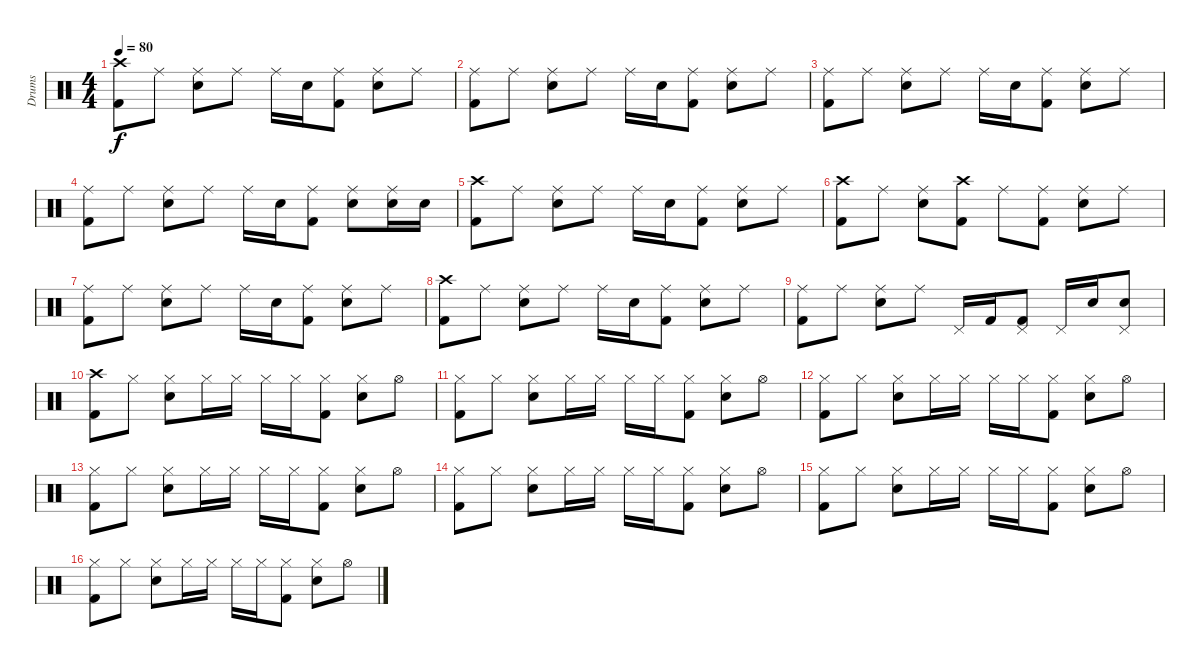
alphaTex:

\track ("Drums" "Drums") {instrument percussion}
\staff {score}
\articulation defaults
\ts (4 4)
\tempo 80
\clef neutral
\ks c
("Crash high (hit)" "Kick (hit) 2").8{dy f} "Ride (middle)".8 ("Ride (middle)" "Electric Snare (hit)").8 "Ride (middle)".8 "Ride (middle)".16 "Electric Snare (hit)".16 ("Ride (middle)" "Kick (hit) 2").8 ("Ride (middle)" "Electric Snare (hit)").8 "Ride (middle)".8 |
("Ride (middle)" "Kick (hit) 2").8 "Ride (middle)".8 ("Ride (middle)" "Electric Snare (hit)").8 "Ride (middle)".8 "Ride (middle)".16 "Electric Snare (hit)".16 ("Ride (middle)" "Kick (hit) 2").8 ("Ride (middle)" "Electric Snare (hit)").8 "Ride (middle)".8 |
("Ride (middle)" "Kick (hit) 2").8 "Ride (middle)".8 ("Ride (middle)" "Electric Snare (hit)").8 "Ride (middle)".8 "Ride (middle)".16 "Electric Snare (hit)".16 ("Ride (middle)" "Kick (hit) 2").8 ("Ride (middle)" "Electric Snare (hit)").8 "Ride (middle)".8 |
("Ride (middle)" "Kick (hit) 2").8 "Ride (middle)".8 ("Ride (middle)" "Electric Snare (hit)").8 "Ride (middle)".8 "Ride (middle)".16 "Electric Snare (hit)".16 ("Ride (middle)" "Kick (hit) 2").8 ("Ride (middle)" "Electric Snare (hit)").8 ("Ride (middle)" "Electric Snare (hit)").16 "Electric Snare (hit)".16 |
("Crash high (hit)" "Kick (hit) 2").8 "Ride (middle)".8 ("Ride (middle)" "Electric Snare (hit)").8 "Ride (middle)".8 "Ride (middle)".16 "Electric Snare (hit)".16 ("Ride (middle)" "Kick (hit) 2").8 ("Ride (middle)" "Electric Snare (hit)").8 "Ride (middle)".8 |
("Crash high (hit)" "Kick (hit) 2").8 "Ride (middle)".8 ("Ride (middle)" "Electric Snare (hit)").8 ("Crash high (hit)" "Kick (hit) 2").8 "Ride (middle)".8 ("Ride (middle)" "Kick (hit) 2").8 ("Ride (middle)" "Electric Snare (hit)").8 "Ride (middle)".8 |
("Ride (middle)" "Kick (hit) 2").8 "Ride (middle)".8 ("Ride (middle)" "Electric Snare (hit)").8 "Ride (middle)".8 "Ride (middle)".16 "Electric Snare (hit)".16 ("Ride (middle)" "Kick (hit) 2").8 ("Ride (middle)" "Electric Snare (hit)").8 "Ride (middle)".8 |
("Crash high (hit)" "Kick (hit) 2").8 "Ride (middle)".8 ("Ride (middle)" "Electric Snare (hit)").8 "Ride (middle)".8 "Ride (middle)".16 "Electric Snare (hit)".16 ("Ride (middle)" "Kick (hit) 2").8 ("Ride (middle)" "Electric Snare (hit)").8 "Ride (middle)".8 |
("Ride (middle)" "Kick (hit) 2").8 "Ride (middle)".8 ("Ride (middle)" "Electric Snare (hit)").8 "Ride (middle)".8 "Pedal Hi-Hat (hit)".16 "Kick (hit) 2".16 ("Pedal Hi-Hat (hit)" "Kick (hit) 2").8 "Pedal Hi-Hat (hit)".16 "Electric Snare (hit)".16 ("Pedal Hi-Hat (hit)" "Electric Snare (hit)").8 |
("Crash high (hit)" "Kick (hit) 2").8 "Hi-Hat (closed)".8 ("Hi-Hat (closed)" "Electric Snare (hit)").8 "Hi-Hat (closed)".16 "Hi-Hat (closed)".16 "Hi-Hat (closed)".16 "Hi-Hat (closed)".16 ("Hi-Hat (closed)" "Kick (hit) 2").8 ("Hi-Hat (closed)" "Electric Snare (hit)").8 "Hi-Hat (open)".8 |
("Hi-Hat (closed)" "Kick (hit) 2").8 "Hi-Hat (closed)".8 ("Hi-Hat (closed)" "Electric Snare (hit)").8 "Hi-Hat (closed)".16 "Hi-Hat (closed)".16 "Hi-Hat (closed)".16 "Hi-Hat (closed)".16 ("Hi-Hat (closed)" "Kick (hit) 2").8 ("Hi-Hat (closed)" "Electric Snare (hit)").8 "Hi-Hat (open)".8 |
("Hi-Hat (closed)" "Kick (hit) 2").8 "Hi-Hat (closed)".8 ("Hi-Hat (closed)" "Electric Snare (hit)").8 "Hi-Hat (closed)".16 "Hi-Hat (closed)".16 "Hi-Hat (closed)".16 "Hi-Hat (closed)".16 ("Hi-Hat (closed)" "Kick (hit) 2").8 ("Hi-Hat (closed)" "Electric Snare (hit)").8 "Hi-Hat (open)".8 |
("Hi-Hat (closed)" "Kick (hit) 2").8 "Hi-Hat (closed)".8 ("Hi-Hat (closed)" "Electric Snare (hit)").8 "Hi-Hat (closed)".16 "Hi-Hat (closed)".16 "Hi-Hat (closed)".16 "Hi-Hat (closed)".16 ("Hi-Hat (closed)" "Kick (hit) 2").8 ("Hi-Hat (closed)" "Electric Snare (hit)").8 "Hi-Hat (open)".8 |
("Hi-Hat (closed)" "Kick (hit) 2").8 "Hi-Hat (closed)".8 ("Hi-Hat (closed)" "Electric Snare (hit)").8 "Hi-Hat (closed)".16 "Hi-Hat (closed)".16 "Hi-Hat (closed)".16 "Hi-Hat (closed)".16 ("Hi-Hat (closed)" "Kick (hit) 2").8 ("Hi-Hat (closed)" "Electric Snare (hit)").8 "Hi-Hat (open)".8 |
("Hi-Hat (closed)" "Kick (hit) 2").8 "Hi-Hat (closed)".8 ("Hi-Hat (closed)" "Electric Snare (hit)").8 "Hi-Hat (closed)".16 "Hi-Hat (closed)".16 "Hi-Hat (closed)".16 "Hi-Hat (closed)".16 ("Hi-Hat (closed)" "Kick (hit) 2").8 ("Hi-Hat (closed)" "Electric Snare (hit)").8 "Hi-Hat (open)".8 |
("Hi-Hat (closed)" "Kick (hit) 2").8 "Hi-Hat (closed)".8 ("Hi-Hat (closed)" "Electric Snare (hit)").8 "Hi-Hat (closed)".16 "Hi-Hat (closed)".16 "Hi-Hat (closed)".16 "Hi-Hat (closed)".16 ("Hi-Hat (closed)" "Kick (hit) 2").8 ("Hi-Hat (closed)" "Electric Snare (hit)").8 "Hi-Hat (open)".8
